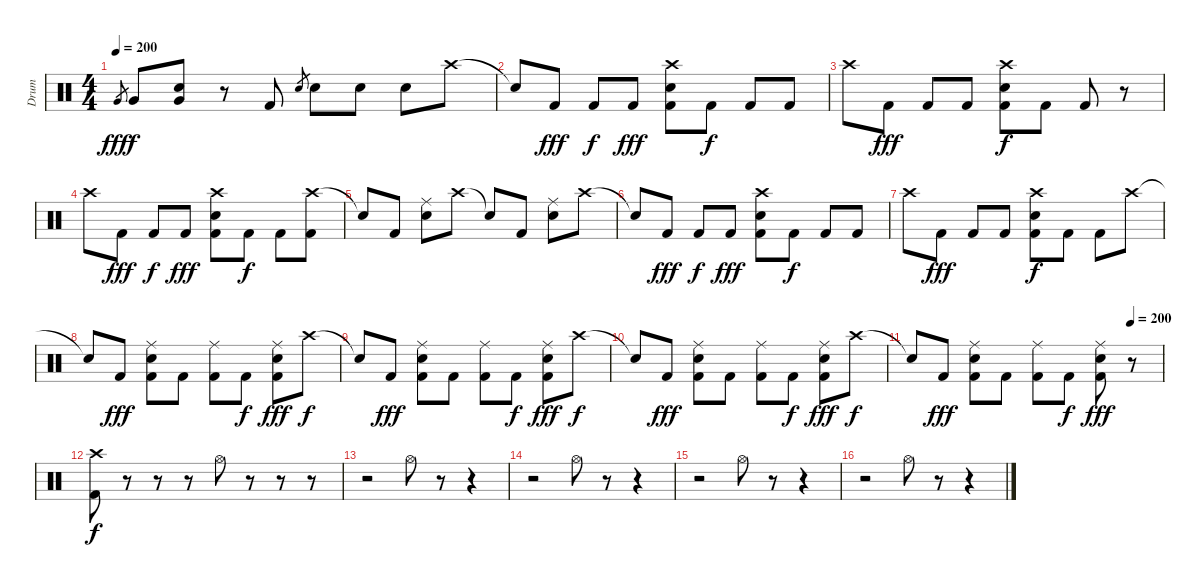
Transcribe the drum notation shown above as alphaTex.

\track ("Drum" "Drum") {instrument percussion}
\staff {score}
\articulation defaults
\ts (4 4)
\tempo 200
\clef neutral
\ks c "Very Low Tom (hit)".8{gr dy fff} "Very Low Tom (hit)".8{dy f}
("Very Low Tom (hit)" "Electric Snare (hit)").8 r.8 "Kick (hit) 2".8 "Electric Snare (hit)".8{gr} "Electric Snare (hit)".8 "Electric Snare (hit)".8 "Electric Snare (hit)".8 "Crash high (hit)".8 |
"Snare (hit)"{t}.8 "Kick (hit) 2".8{dy fff} "Kick (hit) 2".8{dy f} "Kick (hit) 2".8{dy fff} ("Crash high (hit)" "Electric Snare (hit)" "Kick (hit) 2").8 "Kick (hit) 2".8{dy f} "Kick (hit) 2".8 "Kick (hit) 2".8 |
"Crash high (hit)".8 "Kick (hit) 2".8{dy fff} "Kick (hit) 2".8 "Kick (hit) 2".8 ("Crash high (hit)" "Electric Snare (hit)" "Kick (hit) 2").8{dy f} "Kick (hit) 2".8 "Kick (hit) 2".8 r.8 |
"Crash high (hit)".8 "Kick (hit) 2".8{dy fff} "Kick (hit) 2".8{dy f} "Kick (hit) 2".8{dy fff} ("Crash high (hit)" "Electric Snare (hit)" "Kick (hit) 2").8 "Kick (hit) 2".8{dy f} "Kick (hit) 2".8 ("Crash high (hit)" "Kick (hit) 2").8 |
"Snare (hit)"{t}.8 "Kick (hit) 2".8 ("Ride (middle)" "Electric Snare (hit)").8 "Crash high (hit)".8 "Snare (hit)"{t}.8 "Kick (hit) 2".8 ("Ride (middle)" "Electric Snare (hit)").8 "Crash high (hit)".8 |
"Snare (hit)"{t}.8 "Kick (hit) 2".8{dy fff} "Kick (hit) 2".8{dy f} "Kick (hit) 2".8{dy fff} ("Crash high (hit)" "Electric Snare (hit)" "Kick (hit) 2").8 "Kick (hit) 2".8{dy f} "Kick (hit) 2".8 "Kick (hit) 2".8 |
"Crash high (hit)".8 "Kick (hit) 2".8{dy fff} "Kick (hit) 2".8 "Kick (hit) 2".8 ("Crash high (hit)" "Electric Snare (hit)" "Kick (hit) 2").8{dy f} "Kick (hit) 2".8 "Kick (hit) 2".8 "Crash high (hit)".8 |
"Snare (hit)"{t}.8 "Kick (hit) 2".8{dy fff} ("Ride (middle)" "Electric Snare (hit)" "Kick (hit) 2").8 "Kick (hit) 2".8 ("Ride (middle)" "Kick (hit) 2").8 "Kick (hit) 2".8{dy f} ("Ride (middle)" "Electric Snare (hit)" "Kick (hit) 2").8{dy fff} "Crash high (hit)".8{dy f} |
"Snare (hit)"{t}.8 "Kick (hit) 2".8{dy fff} ("Ride (middle)" "Electric Snare (hit)" "Kick (hit) 2").8 "Kick (hit) 2".8 ("Ride (middle)" "Kick (hit) 2").8 "Kick (hit) 2".8{dy f} ("Ride (middle)" "Electric Snare (hit)" "Kick (hit) 2").8{dy fff} "Crash high (hit)".8{dy f} |
"Snare (hit)"{t}.8 "Kick (hit) 2".8{dy fff} ("Ride (middle)" "Electric Snare (hit)" "Kick (hit) 2").8 "Kick (hit) 2".8 ("Ride (middle)" "Kick (hit) 2").8 "Kick (hit) 2".8{dy f} ("Ride (middle)" "Electric Snare (hit)" "Kick (hit) 2").8{dy fff} "Crash high (hit)".8{dy f} |
\tempo (200 0.875)
"Snare (hit)"{t}.8 "Kick (hit) 2".8{dy fff} ("Ride (middle)" "Electric Snare (hit)" "Kick (hit) 2").8 "Kick (hit) 2".8 ("Ride (middle)" "Kick (hit) 2").8 "Kick (hit) 2".8{dy f} ("Ride (middle)" "Electric Snare (hit)" "Kick (hit) 2").8{dy fff} r.8 |
("Crash high (hit)" "Kick (hit) 2").8{dy f} r.8 r.8 r.8 "Hi-Hat (open)".8 r.8 r.8 r.8 |
r.2 "Hi-Hat (open)".8 r.8 r.4 |
r.2 "Hi-Hat (open)".8 r.8 r.4 |
r.2 "Hi-Hat (open)".8 r.8 r.4 |
r.2 "Hi-Hat (open)".8 r.8 r.4
